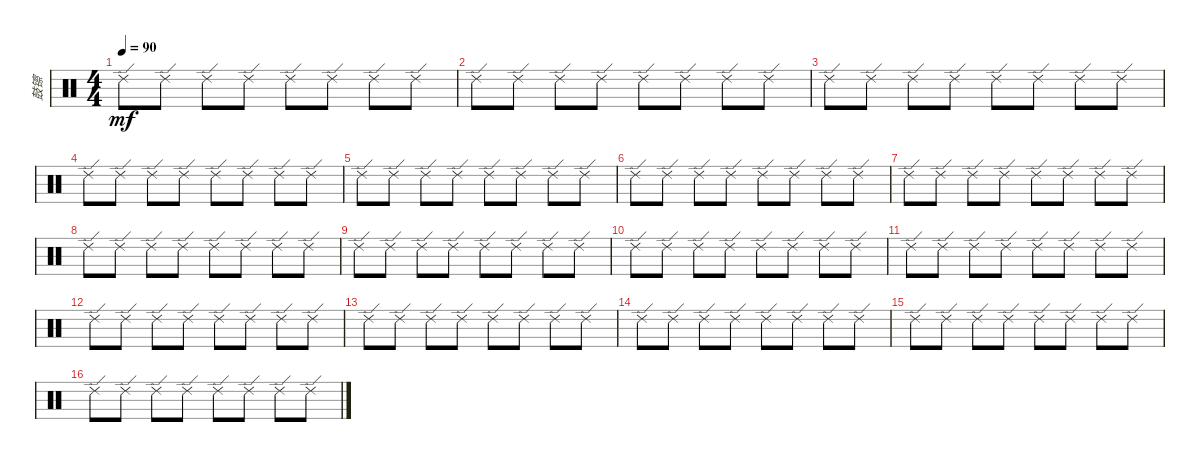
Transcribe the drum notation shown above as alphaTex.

\track ("鼓镲" "鼓镲") {instrument percussion}
\staff {score}
\articulation defaults
\ts (4 4)
\tempo 90
\clef neutral
\ks c "Ride (edge) 2".8{dy mf} "Ride (edge) 2".8 "Ride (edge) 2".8 "Ride (edge) 2".8 "Ride (edge) 2".8 "Ride (edge) 2".8 "Ride (edge) 2".8 "Ride (edge) 2".8
|
"Ride (edge) 2".8 "Ride (edge) 2".8 "Ride (edge) 2".8 "Ride (edge) 2".8 "Ride (edge) 2".8 "Ride (edge) 2".8 "Ride (edge) 2".8 "Ride (edge) 2".8 |
"Ride (edge) 2".8 "Ride (edge) 2".8 "Ride (edge) 2".8 "Ride (edge) 2".8 "Ride (edge) 2".8 "Ride (edge) 2".8 "Ride (edge) 2".8 "Ride (edge) 2".8 |
"Ride (edge) 2".8 "Ride (edge) 2".8 "Ride (edge) 2".8 "Ride (edge) 2".8 "Ride (edge) 2".8 "Ride (edge) 2".8 "Ride (edge) 2".8 "Ride (edge) 2".8 |
"Ride (edge) 2".8 "Ride (edge) 2".8 "Ride (edge) 2".8 "Ride (edge) 2".8 "Ride (edge) 2".8 "Ride (edge) 2".8 "Ride (edge) 2".8 "Ride (edge) 2".8 |
"Ride (edge) 2".8 "Ride (edge) 2".8 "Ride (edge) 2".8 "Ride (edge) 2".8 "Ride (edge) 2".8 "Ride (edge) 2".8 "Ride (edge) 2".8 "Ride (edge) 2".8 |
"Ride (edge) 2".8 "Ride (edge) 2".8 "Ride (edge) 2".8 "Ride (edge) 2".8 "Ride (edge) 2".8 "Ride (edge) 2".8 "Ride (edge) 2".8 "Ride (edge) 2".8 |
"Ride (edge) 2".8 "Ride (edge) 2".8 "Ride (edge) 2".8 "Ride (edge) 2".8 "Ride (edge) 2".8 "Ride (edge) 2".8 "Ride (edge) 2".8 "Ride (edge) 2".8 |
"Ride (edge) 2".8 "Ride (edge) 2".8 "Ride (edge) 2".8 "Ride (edge) 2".8 "Ride (edge) 2".8 "Ride (edge) 2".8 "Ride (edge) 2".8 "Ride (edge) 2".8 |
"Ride (edge) 2".8 "Ride (edge) 2".8 "Ride (edge) 2".8 "Ride (edge) 2".8 "Ride (edge) 2".8 "Ride (edge) 2".8 "Ride (edge) 2".8 "Ride (edge) 2".8 |
"Ride (edge) 2".8 "Ride (edge) 2".8 "Ride (edge) 2".8 "Ride (edge) 2".8 "Ride (edge) 2".8 "Ride (edge) 2".8 "Ride (edge) 2".8 "Ride (edge) 2".8 |
"Ride (edge) 2".8 "Ride (edge) 2".8 "Ride (edge) 2".8 "Ride (edge) 2".8 "Ride (edge) 2".8 "Ride (edge) 2".8 "Ride (edge) 2".8 "Ride (edge) 2".8 |
"Ride (edge) 2".8 "Ride (edge) 2".8 "Ride (edge) 2".8 "Ride (edge) 2".8 "Ride (edge) 2".8 "Ride (edge) 2".8 "Ride (edge) 2".8 "Ride (edge) 2".8 |
"Ride (edge) 2".8 "Ride (edge) 2".8 "Ride (edge) 2".8 "Ride (edge) 2".8 "Ride (edge) 2".8 "Ride (edge) 2".8 "Ride (edge) 2".8 "Ride (edge) 2".8 |
"Ride (edge) 2".8 "Ride (edge) 2".8 "Ride (edge) 2".8 "Ride (edge) 2".8 "Ride (edge) 2".8 "Ride (edge) 2".8 "Ride (edge) 2".8 "Ride (edge) 2".8 |
"Ride (edge) 2".8 "Ride (edge) 2".8 "Ride (edge) 2".8 "Ride (edge) 2".8 "Ride (edge) 2".8 "Ride (edge) 2".8 "Ride (edge) 2".8 "Ride (edge) 2".8
